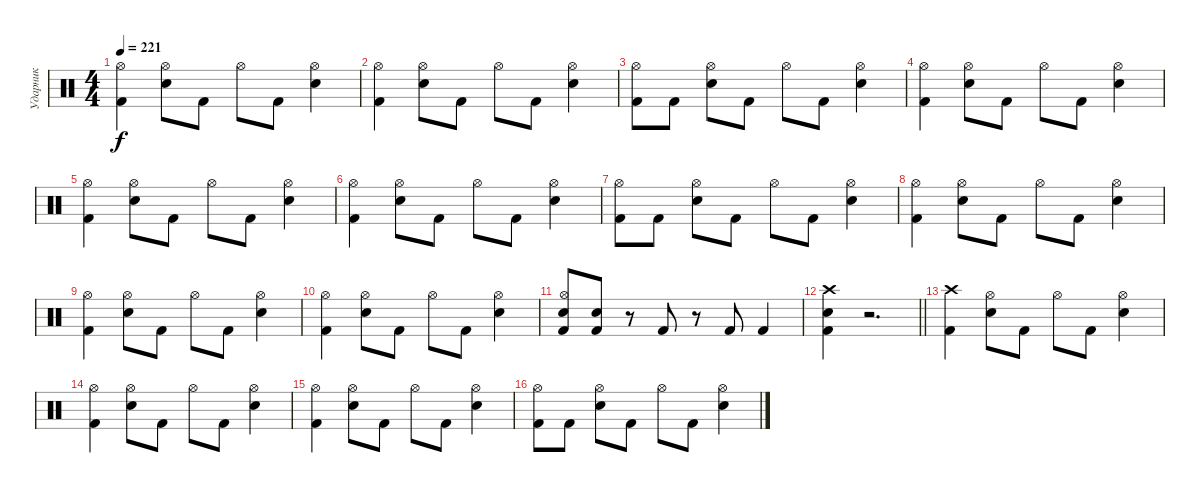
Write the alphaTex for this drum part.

\track ("Ударник" "Ударник") {instrument percussion}
\staff {score}
\articulation defaults
\ts (4 4)
\tempo 221
\clef neutral
\ks c
("Kick (hit) 2" "Hi-Hat (open)").4{dy f} ("Snare (hit) 2" "Hi-Hat (open)").8 "Kick (hit) 2".8 "Hi-Hat (open)".8 "Kick (hit) 2".8 ("Snare (hit) 2" "Hi-Hat (open)").4 |
("Kick (hit) 2" "Hi-Hat (open)").4 ("Snare (hit) 2" "Hi-Hat (open)").8 "Kick (hit) 2".8 "Hi-Hat (open)".8 "Kick (hit) 2".8 ("Snare (hit) 2" "Hi-Hat (open)").4 |
("Kick (hit) 2" "Hi-Hat (open)").8 "Kick (hit) 2".8 ("Snare (hit) 2" "Hi-Hat (open)").8 "Kick (hit) 2".8 "Hi-Hat (open)".8 "Kick (hit) 2".8 ("Snare (hit) 2" "Hi-Hat (open)").4 |
("Kick (hit) 2" "Hi-Hat (open)").4 ("Snare (hit) 2" "Hi-Hat (open)").8 "Kick (hit) 2".8 "Hi-Hat (open)".8 "Kick (hit) 2".8 ("Snare (hit) 2" "Hi-Hat (open)").4 |
("Kick (hit) 2" "Hi-Hat (open)").4 ("Snare (hit) 2" "Hi-Hat (open)").8 "Kick (hit) 2".8 "Hi-Hat (open)".8 "Kick (hit) 2".8 ("Snare (hit) 2" "Hi-Hat (open)").4 |
("Kick (hit) 2" "Hi-Hat (open)").4 ("Snare (hit) 2" "Hi-Hat (open)").8 "Kick (hit) 2".8 "Hi-Hat (open)".8 "Kick (hit) 2".8 ("Snare (hit) 2" "Hi-Hat (open)").4 |
("Kick (hit) 2" "Hi-Hat (open)").8 "Kick (hit) 2".8 ("Snare (hit) 2" "Hi-Hat (open)").8 "Kick (hit) 2".8 "Hi-Hat (open)".8 "Kick (hit) 2".8 ("Snare (hit) 2" "Hi-Hat (open)").4 |
("Kick (hit) 2" "Hi-Hat (open)").4 ("Snare (hit) 2" "Hi-Hat (open)").8 "Kick (hit) 2".8 "Hi-Hat (open)".8 "Kick (hit) 2".8 ("Snare (hit) 2" "Hi-Hat (open)").4 |
("Kick (hit) 2" "Hi-Hat (open)").4 ("Snare (hit) 2" "Hi-Hat (open)").8 "Kick (hit) 2".8 "Hi-Hat (open)".8 "Kick (hit) 2".8 ("Snare (hit) 2" "Hi-Hat (open)").4 |
("Kick (hit) 2" "Hi-Hat (open)").4 ("Snare (hit) 2" "Hi-Hat (open)").8 "Kick (hit) 2".8 "Hi-Hat (open)".8 "Kick (hit) 2".8 ("Snare (hit) 2" "Hi-Hat (open)").4 |
("Kick (hit) 2" "Snare (hit) 2" "Hi-Hat (open)").8 ("Kick (hit) 2" "Snare (hit) 2").8 r.8 "Kick (hit) 2".8 r.8 "Kick (hit) 2".8 "Kick (hit) 2".4 |
\barLineRight lightlight
("Kick (hit) 2" "Snare (hit) 2" "Crash high (hit)").4 r.2{d} |
("Kick (hit) 2" "Crash high (hit)").4 ("Snare (hit) 2" "Hi-Hat (open)").8 "Kick (hit) 2".8 "Hi-Hat (open)".8 "Kick (hit) 2".8 ("Snare (hit) 2" "Hi-Hat (open)").4 |
("Kick (hit) 2" "Hi-Hat (open)").4 ("Snare (hit) 2" "Hi-Hat (open)").8 "Kick (hit) 2".8 "Hi-Hat (open)".8 "Kick (hit) 2".8 ("Snare (hit) 2" "Hi-Hat (open)").4 |
("Kick (hit) 2" "Hi-Hat (open)").4 ("Snare (hit) 2" "Hi-Hat (open)").8 "Kick (hit) 2".8 "Hi-Hat (open)".8 "Kick (hit) 2".8 ("Snare (hit) 2" "Hi-Hat (open)").4 |
("Kick (hit) 2" "Hi-Hat (open)").8 "Kick (hit) 2".8 ("Snare (hit) 2" "Hi-Hat (open)").8 "Kick (hit) 2".8 "Hi-Hat (open)".8 "Kick (hit) 2".8 ("Snare (hit) 2" "Hi-Hat (open)").4
